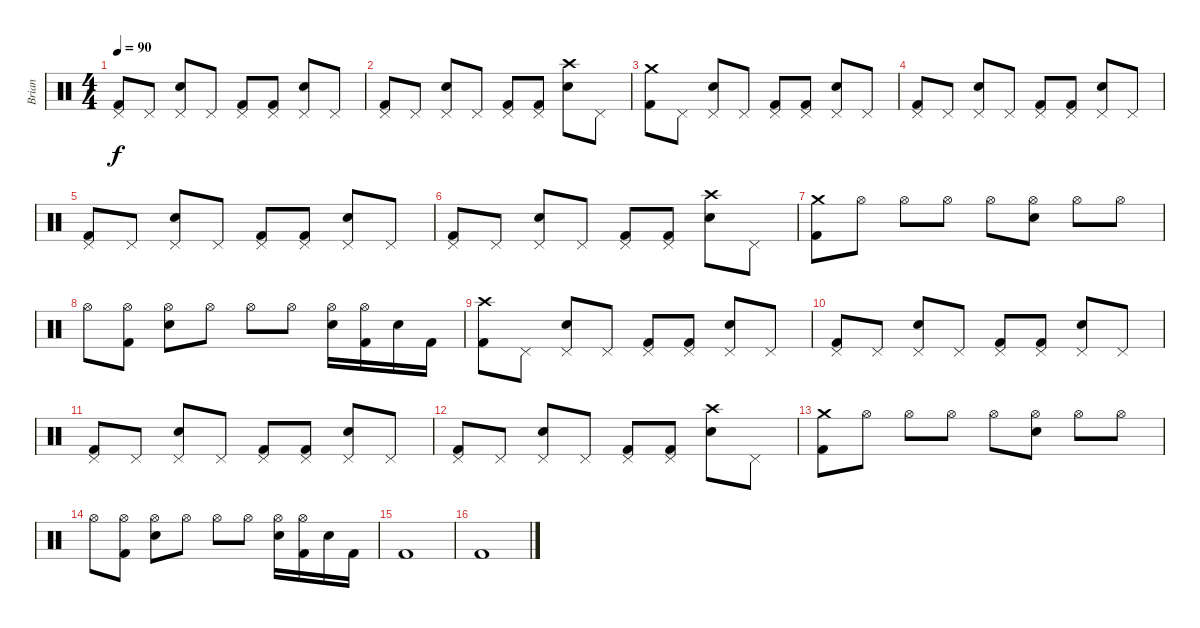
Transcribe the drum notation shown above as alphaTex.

\track ("Brian" "Brian") {instrument percussion}
\staff {score}
\articulation defaults
\ts (4 4)
\tempo 90
\clef neutral
\ks c
("Pedal Hi-Hat (hit)" "Kick (hit) 2").8{dy f} "Pedal Hi-Hat (hit)".8 ("Pedal Hi-Hat (hit)" "Electric Snare (hit)").8 "Pedal Hi-Hat (hit)".8 ("Pedal Hi-Hat (hit)" "Kick (hit) 2").8 ("Pedal Hi-Hat (hit)" "Kick (hit) 2").8 ("Pedal Hi-Hat (hit)" "Electric Snare (hit)").8 "Pedal Hi-Hat (hit)".8 |
("Pedal Hi-Hat (hit)" "Kick (hit) 2").8 "Pedal Hi-Hat (hit)".8 ("Pedal Hi-Hat (hit)" "Electric Snare (hit)").8 "Pedal Hi-Hat (hit)".8 ("Pedal Hi-Hat (hit)" "Kick (hit) 2").8 ("Pedal Hi-Hat (hit)" "Kick (hit) 2").8 ("Crash high (hit)" "Electric Snare (hit)").8 "Pedal Hi-Hat (hit)".8 |
("Crash medium (hit)" "Kick (hit) 2").8 "Pedal Hi-Hat (hit)".8 ("Pedal Hi-Hat (hit)" "Electric Snare (hit)").8 "Pedal Hi-Hat (hit)".8 ("Pedal Hi-Hat (hit)" "Kick (hit) 2").8 ("Pedal Hi-Hat (hit)" "Kick (hit) 2").8 ("Pedal Hi-Hat (hit)" "Electric Snare (hit)").8 "Pedal Hi-Hat (hit)".8 |
("Pedal Hi-Hat (hit)" "Kick (hit) 2").8 "Pedal Hi-Hat (hit)".8 ("Pedal Hi-Hat (hit)" "Electric Snare (hit)").8 "Pedal Hi-Hat (hit)".8 ("Pedal Hi-Hat (hit)" "Kick (hit) 2").8 ("Pedal Hi-Hat (hit)" "Kick (hit) 2").8 ("Pedal Hi-Hat (hit)" "Electric Snare (hit)").8 "Pedal Hi-Hat (hit)".8 |
("Pedal Hi-Hat (hit)" "Kick (hit) 2").8 "Pedal Hi-Hat (hit)".8 ("Pedal Hi-Hat (hit)" "Electric Snare (hit)").8 "Pedal Hi-Hat (hit)".8 ("Pedal Hi-Hat (hit)" "Kick (hit) 2").8 ("Pedal Hi-Hat (hit)" "Kick (hit) 2").8 ("Pedal Hi-Hat (hit)" "Electric Snare (hit)").8 "Pedal Hi-Hat (hit)".8 |
("Pedal Hi-Hat (hit)" "Kick (hit) 2").8 "Pedal Hi-Hat (hit)".8 ("Pedal Hi-Hat (hit)" "Electric Snare (hit)").8 "Pedal Hi-Hat (hit)".8 ("Pedal Hi-Hat (hit)" "Kick (hit) 2").8 ("Pedal Hi-Hat (hit)" "Kick (hit) 2").8 ("Crash high (hit)" "Electric Snare (hit)").8 "Pedal Hi-Hat (hit)".8 |
("Crash medium (hit)" "Kick (hit) 2").8 "Hi-Hat (open)".8 "Hi-Hat (open)".8 "Hi-Hat (open)".8 "Hi-Hat (open)".8 ("Hi-Hat (open)" "Electric Snare (hit)").8 "Hi-Hat (open)".8 "Hi-Hat (open)".8 |
"Hi-Hat (open)".8 ("Hi-Hat (open)" "Kick (hit) 2").8 ("Hi-Hat (open)" "Electric Snare (hit)").8 "Hi-Hat (open)".8 "Hi-Hat (open)".8 "Hi-Hat (open)".8 ("Hi-Hat (open)" "Electric Snare (hit)").16 ("Hi-Hat (open)" "Kick (hit) 2").16 "Electric Snare (hit)".16 "Kick (hit) 2".16 |
("Crash high (hit)" "Kick (hit) 2").8 "Pedal Hi-Hat (hit)".8 ("Pedal Hi-Hat (hit)" "Electric Snare (hit)").8 "Pedal Hi-Hat (hit)".8 ("Pedal Hi-Hat (hit)" "Kick (hit) 2").8 ("Pedal Hi-Hat (hit)" "Kick (hit) 2").8 ("Pedal Hi-Hat (hit)" "Electric Snare (hit)").8 "Pedal Hi-Hat (hit)".8 |
("Pedal Hi-Hat (hit)" "Kick (hit) 2").8 "Pedal Hi-Hat (hit)".8 ("Pedal Hi-Hat (hit)" "Electric Snare (hit)").8 "Pedal Hi-Hat (hit)".8 ("Pedal Hi-Hat (hit)" "Kick (hit) 2").8 ("Pedal Hi-Hat (hit)" "Kick (hit) 2").8 ("Pedal Hi-Hat (hit)" "Electric Snare (hit)").8 "Pedal Hi-Hat (hit)".8 |
("Pedal Hi-Hat (hit)" "Kick (hit) 2").8 "Pedal Hi-Hat (hit)".8 ("Pedal Hi-Hat (hit)" "Electric Snare (hit)").8 "Pedal Hi-Hat (hit)".8 ("Pedal Hi-Hat (hit)" "Kick (hit) 2").8 ("Pedal Hi-Hat (hit)" "Kick (hit) 2").8 ("Pedal Hi-Hat (hit)" "Electric Snare (hit)").8 "Pedal Hi-Hat (hit)".8 |
("Pedal Hi-Hat (hit)" "Kick (hit) 2").8 "Pedal Hi-Hat (hit)".8 ("Pedal Hi-Hat (hit)" "Electric Snare (hit)").8 "Pedal Hi-Hat (hit)".8 ("Pedal Hi-Hat (hit)" "Kick (hit) 2").8 ("Pedal Hi-Hat (hit)" "Kick (hit) 2").8 ("Crash high (hit)" "Electric Snare (hit)").8 "Pedal Hi-Hat (hit)".8 |
("Crash medium (hit)" "Kick (hit) 2").8 "Hi-Hat (open)".8 "Hi-Hat (open)".8 "Hi-Hat (open)".8 "Hi-Hat (open)".8 ("Hi-Hat (open)" "Electric Snare (hit)").8 "Hi-Hat (open)".8 "Hi-Hat (open)".8 |
"Hi-Hat (open)".8 ("Hi-Hat (open)" "Kick (hit) 2").8 ("Hi-Hat (open)" "Electric Snare (hit)").8 "Hi-Hat (open)".8 "Hi-Hat (open)".8 "Hi-Hat (open)".8 ("Hi-Hat (open)" "Electric Snare (hit)").16 ("Hi-Hat (open)" "Kick (hit) 2").16 "Electric Snare (hit)".16 "Kick (hit) 2".16 |
"Kick (hit) 2".1 |
"Kick (hit) 2".1
